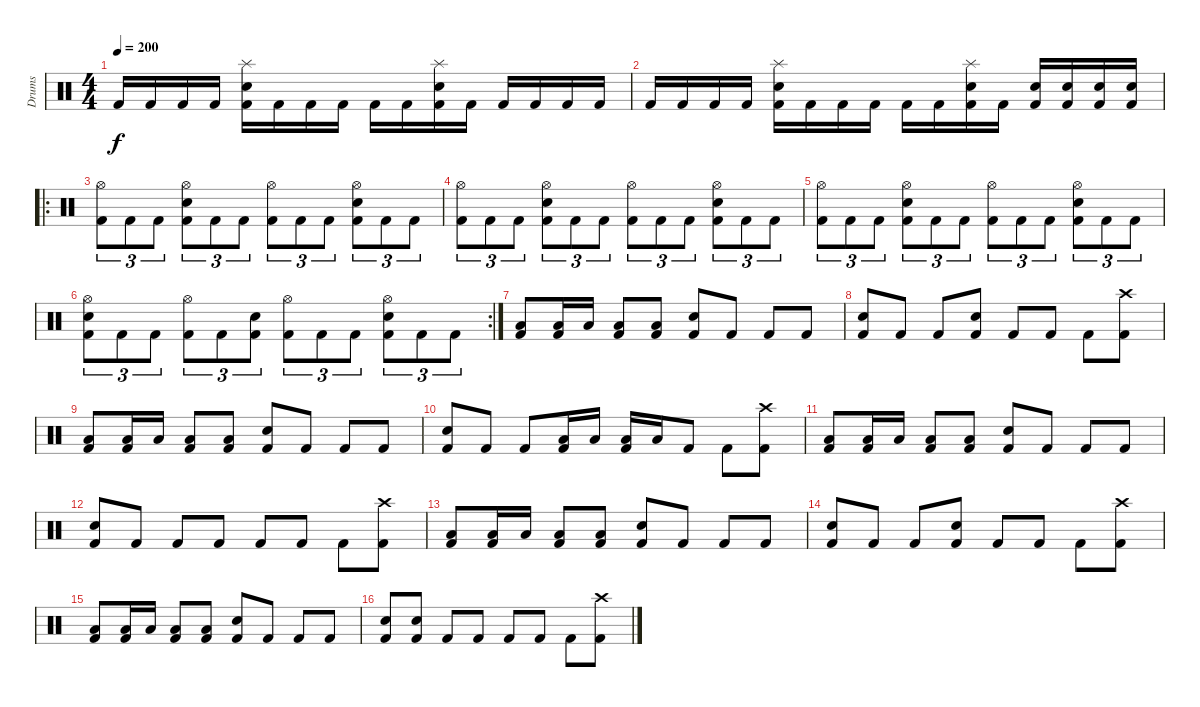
\track ("Drums" "Drums") {instrument percussion}
\staff {score}
\articulation defaults
\ts (4 4)
\tempo 200
\clef neutral
\ks c "Kick (hit) 2".16{dy f} "Kick (hit) 2".16 "Kick (hit) 2".16 "Kick (hit) 2".16
("Kick (hit) 2" "Snare (hit) 2" "Splash (hit)").16 "Kick (hit) 2".16 "Kick (hit) 2".16 "Kick (hit) 2".16 "Kick (hit) 2".16 "Kick (hit) 2".16 ("Kick (hit) 2" "Snare (hit) 2" "Splash (hit)").16 "Kick (hit) 2".16 "Kick (hit) 2".16 "Kick (hit) 2".16 "Kick (hit) 2".16 "Kick (hit) 2".16 |
"Kick (hit) 2".16 "Kick (hit) 2".16 "Kick (hit) 2".16 "Kick (hit) 2".16 ("Kick (hit) 2" "Snare (hit) 2" "Splash (hit)").16 "Kick (hit) 2".16 "Kick (hit) 2".16 "Kick (hit) 2".16 "Kick (hit) 2".16 "Kick (hit) 2".16 ("Kick (hit) 2" "Snare (hit) 2" "Splash (hit)").16 "Kick (hit) 2".16 ("Kick (hit) 2" "Snare (hit) 2").16 ("Kick (hit) 2" "Snare (hit) 2").16 ("Kick (hit) 2" "Snare (hit) 2").16 ("Kick (hit) 2" "Snare (hit) 2").16 |
\ro
("Kick (hit) 2" "Hi-Hat (open)").8{tu (3 2)} "Kick (hit) 2".8{tu (3 2)} "Kick (hit) 2".8{tu (3 2)} ("Kick (hit) 2" "Snare (hit) 2" "Hi-Hat (open)").8{tu (3 2)} "Kick (hit) 2".8{tu (3 2)} "Kick (hit) 2".8{tu (3 2)} ("Kick (hit) 2" "Hi-Hat (open)").8{tu (3 2)} "Kick (hit) 2".8{tu (3 2)} "Kick (hit) 2".8{tu (3 2)} ("Kick (hit) 2" "Snare (hit) 2" "Hi-Hat (open)").8{tu (3 2)} "Kick (hit) 2".8{tu (3 2)} "Kick (hit) 2".8{tu (3 2)} |
("Kick (hit) 2" "Hi-Hat (open)").8{tu (3 2)} "Kick (hit) 2".8{tu (3 2)} "Kick (hit) 2".8{tu (3 2)} ("Kick (hit) 2" "Snare (hit) 2" "Hi-Hat (open)").8{tu (3 2)} "Kick (hit) 2".8{tu (3 2)} "Kick (hit) 2".8{tu (3 2)} ("Kick (hit) 2" "Hi-Hat (open)").8{tu (3 2)} "Kick (hit) 2".8{tu (3 2)} "Kick (hit) 2".8{tu (3 2)} ("Kick (hit) 2" "Snare (hit) 2" "Hi-Hat (open)").8{tu (3 2)} "Kick (hit) 2".8{tu (3 2)} "Kick (hit) 2".8{tu (3 2)} |
("Kick (hit) 2" "Hi-Hat (open)").8{tu (3 2)} "Kick (hit) 2".8{tu (3 2)} "Kick (hit) 2".8{tu (3 2)} ("Kick (hit) 2" "Snare (hit) 2" "Hi-Hat (open)").8{tu (3 2)} "Kick (hit) 2".8{tu (3 2)} "Kick (hit) 2".8{tu (3 2)} ("Kick (hit) 2" "Hi-Hat (open)").8{tu (3 2)} "Kick (hit) 2".8{tu (3 2)} "Kick (hit) 2".8{tu (3 2)} ("Kick (hit) 2" "Snare (hit) 2" "Hi-Hat (open)").8{tu (3 2)} "Kick (hit) 2".8{tu (3 2)} "Kick (hit) 2".8{tu (3 2)} |
\rc 2
("Kick (hit) 2" "Snare (hit) 2" "Hi-Hat (open)").8{tu (3 2)} "Kick (hit) 2".8{tu (3 2)} "Kick (hit) 2".8{tu (3 2)} ("Kick (hit) 2" "Hi-Hat (open)").8{tu (3 2)} "Kick (hit) 2".8{tu (3 2)} ("Kick (hit) 2" "Snare (hit) 2").8{tu (3 2)} ("Kick (hit) 2" "Hi-Hat (open)").8{tu (3 2)} "Kick (hit) 2".8{tu (3 2)} "Kick (hit) 2".8{tu (3 2)} ("Kick (hit) 2" "Snare (hit) 2" "Hi-Hat (open)").8{tu (3 2)} "Kick (hit) 2".8{tu (3 2)} "Kick (hit) 2".8{tu (3 2)} |
("Kick (hit) 2" "Low Tom (hit)").8 ("Kick (hit) 2" "Low Tom (hit)").16 "Low Tom (hit)".16 ("Kick (hit) 2" "Low Tom (hit)").8 ("Kick (hit) 2" "Low Tom (hit)").8 ("Kick (hit) 2" "Snare (hit) 2").8 "Kick (hit) 2".8 "Kick (hit) 2".8 "Kick (hit) 2".8 |
("Kick (hit) 2" "Snare (hit) 2").8 "Kick (hit) 2".8 "Kick (hit) 2".8 ("Kick (hit) 2" "Snare (hit) 2").8 "Kick (hit) 2".8 "Kick (hit) 2".8 "Kick (hit) 2".8 ("Kick (hit) 2" "Crash high (hit)").8 |
("Kick (hit) 2" "Low Tom (hit)").8 ("Kick (hit) 2" "Low Tom (hit)").16 "Low Tom (hit)".16 ("Kick (hit) 2" "Low Tom (hit)").8 ("Kick (hit) 2" "Low Tom (hit)").8 ("Kick (hit) 2" "Snare (hit) 2").8 "Kick (hit) 2".8 "Kick (hit) 2".8 "Kick (hit) 2".8 |
("Kick (hit) 2" "Snare (hit) 2").8 "Kick (hit) 2".8 "Kick (hit) 2".8 ("Kick (hit) 2" "Low Tom (hit)").16 "Low Tom (hit)".16 ("Kick (hit) 2" "Low Tom (hit)").16 "Low Tom (hit)".16 "Kick (hit) 2".8 "Kick (hit) 2".8 ("Kick (hit) 2" "Crash high (hit)").8 |
("Kick (hit) 2" "Low Tom (hit)").8 ("Kick (hit) 2" "Low Tom (hit)").16 "Low Tom (hit)".16 ("Kick (hit) 2" "Low Tom (hit)").8 ("Kick (hit) 2" "Low Tom (hit)").8 ("Kick (hit) 2" "Snare (hit) 2").8 "Kick (hit) 2".8 "Kick (hit) 2".8 "Kick (hit) 2".8 |
("Kick (hit) 2" "Snare (hit) 2").8 "Kick (hit) 2".8 "Kick (hit) 2".8 "Kick (hit) 2".8 "Kick (hit) 2".8 "Kick (hit) 2".8 "Kick (hit) 2".8 ("Kick (hit) 2" "Crash high (hit)").8 |
("Kick (hit) 2" "Low Tom (hit)").8 ("Kick (hit) 2" "Low Tom (hit)").16 "Low Tom (hit)".16 ("Kick (hit) 2" "Low Tom (hit)").8 ("Kick (hit) 2" "Low Tom (hit)").8 ("Kick (hit) 2" "Snare (hit) 2").8 "Kick (hit) 2".8 "Kick (hit) 2".8 "Kick (hit) 2".8 |
("Kick (hit) 2" "Snare (hit) 2").8 "Kick (hit) 2".8 "Kick (hit) 2".8 ("Kick (hit) 2" "Snare (hit) 2").8 "Kick (hit) 2".8 "Kick (hit) 2".8 "Kick (hit) 2".8 ("Kick (hit) 2" "Crash high (hit)").8 |
("Kick (hit) 2" "Low Tom (hit)").8 ("Kick (hit) 2" "Low Tom (hit)").16 "Low Tom (hit)".16 ("Kick (hit) 2" "Low Tom (hit)").8 ("Kick (hit) 2" "Low Tom (hit)").8 ("Kick (hit) 2" "Snare (hit) 2").8 "Kick (hit) 2".8 "Kick (hit) 2".8 "Kick (hit) 2".8 |
("Kick (hit) 2" "Snare (hit) 2").8 ("Kick (hit) 2" "Snare (hit) 2").8 "Kick (hit) 2".8 "Kick (hit) 2".8 "Kick (hit) 2".8 "Kick (hit) 2".8 "Kick (hit) 2".8 ("Kick (hit) 2" "Crash high (hit)").8
